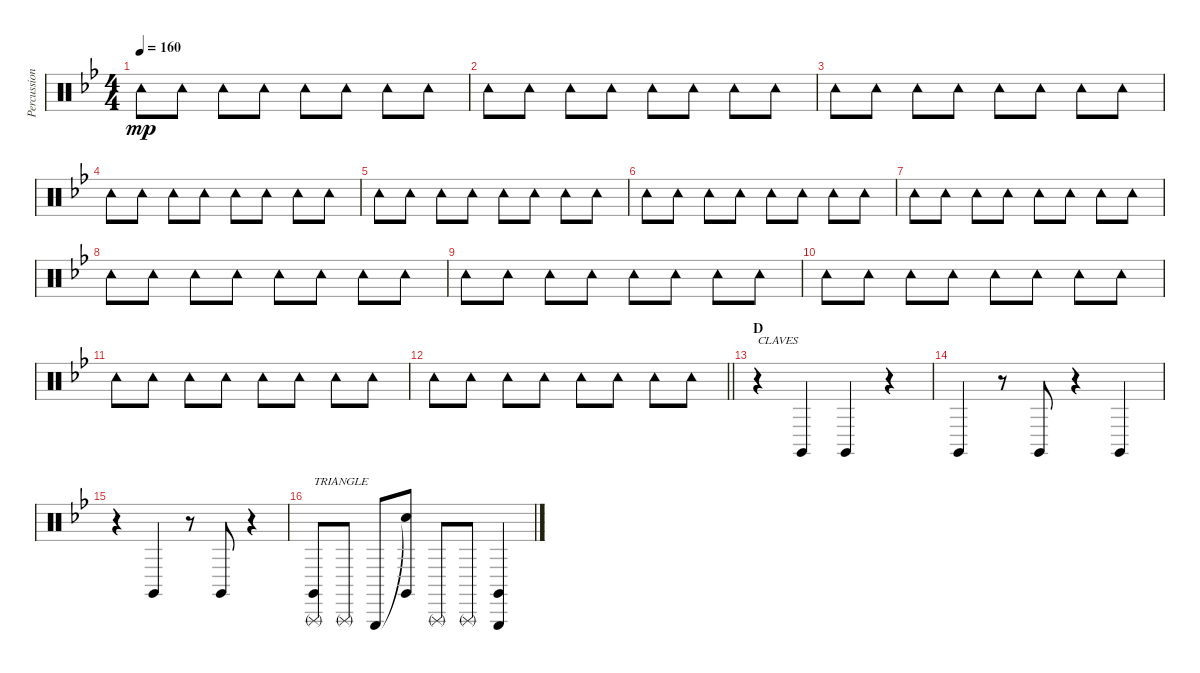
\track ("Percussion (Tainaka Ritsu)" "Percussion") {instrument percussion}
\staff {score}
\articulation defaults
\ts (4 4)
\tempo 160
\clef neutral
\ks bb "Tambourine (hit)".8{dy mp} "Tambourine (hit)".8 "Tambourine (hit)".8 "Tambourine (hit)".8 "Tambourine (hit)".8 "Tambourine (hit)".8 "Tambourine (hit)".8 "Tambourine (hit)".8
|
"Tambourine (hit)".8 "Tambourine (hit)".8 "Tambourine (hit)".8 "Tambourine (hit)".8 "Tambourine (hit)".8 "Tambourine (hit)".8 "Tambourine (hit)".8 "Tambourine (hit)".8 |
"Tambourine (hit)".8 "Tambourine (hit)".8 "Tambourine (hit)".8 "Tambourine (hit)".8 "Tambourine (hit)".8 "Tambourine (hit)".8 "Tambourine (hit)".8 "Tambourine (hit)".8 |
"Tambourine (hit)".8 "Tambourine (hit)".8 "Tambourine (hit)".8 "Tambourine (hit)".8 "Tambourine (hit)".8 "Tambourine (hit)".8 "Tambourine (hit)".8 "Tambourine (hit)".8 |
"Tambourine (hit)".8 "Tambourine (hit)".8 "Tambourine (hit)".8 "Tambourine (hit)".8 "Tambourine (hit)".8 "Tambourine (hit)".8 "Tambourine (hit)".8 "Tambourine (hit)".8 |
"Tambourine (hit)".8 "Tambourine (hit)".8 "Tambourine (hit)".8 "Tambourine (hit)".8 "Tambourine (hit)".8 "Tambourine (hit)".8 "Tambourine (hit)".8 "Tambourine (hit)".8 |
"Tambourine (hit)".8 "Tambourine (hit)".8 "Tambourine (hit)".8 "Tambourine (hit)".8 "Tambourine (hit)".8 "Tambourine (hit)".8 "Tambourine (hit)".8 "Tambourine (hit)".8 |
"Tambourine (hit)".8 "Tambourine (hit)".8 "Tambourine (hit)".8 "Tambourine (hit)".8 "Tambourine (hit)".8 "Tambourine (hit)".8 "Tambourine (hit)".8 "Tambourine (hit)".8 |
"Tambourine (hit)".8 "Tambourine (hit)".8 "Tambourine (hit)".8 "Tambourine (hit)".8 "Tambourine (hit)".8 "Tambourine (hit)".8 "Tambourine (hit)".8 "Tambourine (hit)".8 |
"Tambourine (hit)".8 "Tambourine (hit)".8 "Tambourine (hit)".8 "Tambourine (hit)".8 "Tambourine (hit)".8 "Tambourine (hit)".8 "Tambourine (hit)".8 "Tambourine (hit)".8 |
"Tambourine (hit)".8 "Tambourine (hit)".8 "Tambourine (hit)".8 "Tambourine (hit)".8 "Tambourine (hit)".8 "Tambourine (hit)".8 "Tambourine (hit)".8 "Tambourine (hit)".8 |
\barLineRight lightlight "Tambourine (hit)".8 "Tambourine (hit)".8 "Tambourine (hit)".8 "Tambourine (hit)".8 "Tambourine (hit)".8 "Tambourine (hit)".8 "Tambourine (hit)".8 "Tambourine (hit)".8
|
\section ("" "D")
r.4{txt "CLAVES"} "Claves (hit)".4 "Claves (hit)".4 r.4 |
"Claves (hit)".4 r.8 "Claves (hit)".8 r.4 "Claves (hit)".4 |
r.4 "Claves (hit)".4 r.8 "Claves (hit)".8 r.4 |
("Triangle (rnute)" "Claves (hit)").8{txt "TRIANGLE"} "Triangle (rnute)".8 "Triangle (hit)".8 ("Snare (hit)"{t} "Claves (hit)").8 "Triangle (rnute)".8 "Triangle (rnute)".8 ("Triangle (hit)" "Claves (hit)").4
